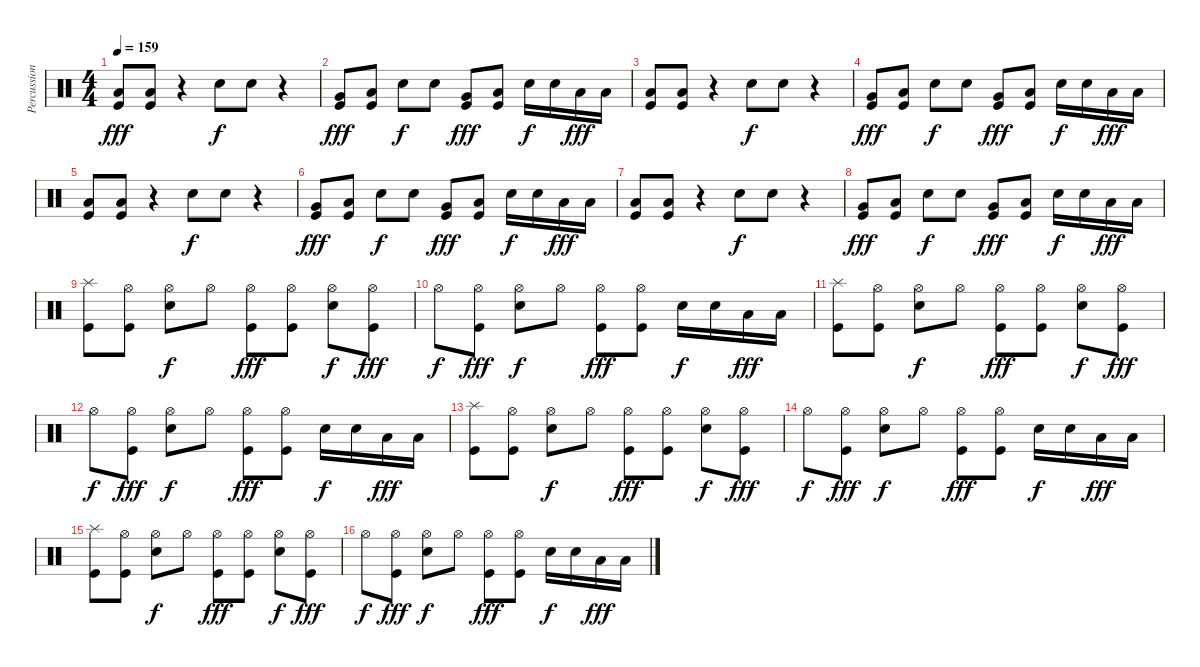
\track ("Percussion" "Percussion") {instrument percussion}
\staff {score}
\articulation defaults
\ts (4 4)
\tempo 159
\clef neutral
\ks c
("Low Tom (hit)" "Kick (hit)").8{dy fff} ("Low Tom (hit)" "Kick (hit)").8 r.4 "Snare (hit) 2".8{dy f} "Snare (hit) 2".8 r.4 |
("Very Low Tom (hit)" "Kick (hit)").8{dy fff} ("Low Tom (hit)" "Kick (hit)").8 "Snare (hit) 2".8{dy f} "Snare (hit) 2".8 ("Very Low Tom (hit)" "Kick (hit)").8{dy fff} ("Low Tom (hit)" "Kick (hit)").8 "Snare (hit) 2".16{dy f} "Snare (hit) 2".16 "Low Tom (hit)".16{dy fff} "Low Tom (hit)".16 |
("Low Tom (hit)" "Kick (hit)").8 ("Low Tom (hit)" "Kick (hit)").8 r.4 "Snare (hit) 2".8{dy f} "Snare (hit) 2".8 r.4 |
("Very Low Tom (hit)" "Kick (hit)").8{dy fff} ("Low Tom (hit)" "Kick (hit)").8 "Snare (hit) 2".8{dy f} "Snare (hit) 2".8 ("Very Low Tom (hit)" "Kick (hit)").8{dy fff} ("Low Tom (hit)" "Kick (hit)").8 "Snare (hit) 2".16{dy f} "Snare (hit) 2".16 "Low Tom (hit)".16{dy fff} "Low Tom (hit)".16 |
("Low Tom (hit)" "Kick (hit)").8 ("Low Tom (hit)" "Kick (hit)").8 r.4 "Snare (hit) 2".8{dy f} "Snare (hit) 2".8 r.4 |
("Very Low Tom (hit)" "Kick (hit)").8{dy fff} ("Low Tom (hit)" "Kick (hit)").8 "Snare (hit) 2".8{dy f} "Snare (hit) 2".8 ("Very Low Tom (hit)" "Kick (hit)").8{dy fff} ("Low Tom (hit)" "Kick (hit)").8 "Snare (hit) 2".16{dy f} "Snare (hit) 2".16 "Low Tom (hit)".16{dy fff} "Low Tom (hit)".16 |
("Low Tom (hit)" "Kick (hit)").8 ("Low Tom (hit)" "Kick (hit)").8 r.4 "Snare (hit) 2".8{dy f} "Snare (hit) 2".8 r.4 |
("Very Low Tom (hit)" "Kick (hit)").8{dy fff} ("Low Tom (hit)" "Kick (hit)").8 "Snare (hit) 2".8{dy f} "Snare (hit) 2".8 ("Very Low Tom (hit)" "Kick (hit)").8{dy fff} ("Low Tom (hit)" "Kick (hit)").8 "Snare (hit) 2".16{dy f} "Snare (hit) 2".16 "Low Tom (hit)".16{dy fff} "Low Tom (hit)".16 |
("Splash (hit)" "Kick (hit)").8 ("Hi-Hat (open)" "Kick (hit)").8 ("Hi-Hat (open)" "Snare (hit) 2").8{dy f} "Hi-Hat (open)".8 ("Hi-Hat (open)" "Kick (hit)").8{dy fff} ("Hi-Hat (open)" "Kick (hit)").8 ("Hi-Hat (open)" "Snare (hit) 2").8{dy f} ("Hi-Hat (open)" "Kick (hit)").8{dy fff} |
"Hi-Hat (open)".8{dy f} ("Hi-Hat (open)" "Kick (hit)").8{dy fff} ("Hi-Hat (open)" "Snare (hit) 2").8{dy f} "Hi-Hat (open)".8 ("Hi-Hat (open)" "Kick (hit)").8{dy fff} ("Hi-Hat (open)" "Kick (hit)").8 "Snare (hit) 2".16{dy f} "Snare (hit) 2".16 "Low Tom (hit)".16{dy fff} "Low Tom (hit)".16 |
("Splash (hit)" "Kick (hit)").8 ("Hi-Hat (open)" "Kick (hit)").8 ("Hi-Hat (open)" "Snare (hit) 2").8{dy f} "Hi-Hat (open)".8 ("Hi-Hat (open)" "Kick (hit)").8{dy fff} ("Hi-Hat (open)" "Kick (hit)").8 ("Hi-Hat (open)" "Snare (hit) 2").8{dy f} ("Hi-Hat (open)" "Kick (hit)").8{dy fff} |
"Hi-Hat (open)".8{dy f} ("Hi-Hat (open)" "Kick (hit)").8{dy fff} ("Hi-Hat (open)" "Snare (hit) 2").8{dy f} "Hi-Hat (open)".8 ("Hi-Hat (open)" "Kick (hit)").8{dy fff} ("Hi-Hat (open)" "Kick (hit)").8 "Snare (hit) 2".16{dy f} "Snare (hit) 2".16 "Low Tom (hit)".16{dy fff} "Low Tom (hit)".16 |
("Splash (hit)" "Kick (hit)").8 ("Hi-Hat (open)" "Kick (hit)").8 ("Hi-Hat (open)" "Snare (hit) 2").8{dy f} "Hi-Hat (open)".8 ("Hi-Hat (open)" "Kick (hit)").8{dy fff} ("Hi-Hat (open)" "Kick (hit)").8 ("Hi-Hat (open)" "Snare (hit) 2").8{dy f} ("Hi-Hat (open)" "Kick (hit)").8{dy fff} |
"Hi-Hat (open)".8{dy f} ("Hi-Hat (open)" "Kick (hit)").8{dy fff} ("Hi-Hat (open)" "Snare (hit) 2").8{dy f} "Hi-Hat (open)".8 ("Hi-Hat (open)" "Kick (hit)").8{dy fff} ("Hi-Hat (open)" "Kick (hit)").8 "Snare (hit) 2".16{dy f} "Snare (hit) 2".16 "Low Tom (hit)".16{dy fff} "Low Tom (hit)".16 |
("Splash (hit)" "Kick (hit)").8 ("Hi-Hat (open)" "Kick (hit)").8 ("Hi-Hat (open)" "Snare (hit) 2").8{dy f} "Hi-Hat (open)".8 ("Hi-Hat (open)" "Kick (hit)").8{dy fff} ("Hi-Hat (open)" "Kick (hit)").8 ("Hi-Hat (open)" "Snare (hit) 2").8{dy f} ("Hi-Hat (open)" "Kick (hit)").8{dy fff} |
"Hi-Hat (open)".8{dy f} ("Hi-Hat (open)" "Kick (hit)").8{dy fff} ("Hi-Hat (open)" "Snare (hit) 2").8{dy f} "Hi-Hat (open)".8 ("Hi-Hat (open)" "Kick (hit)").8{dy fff} ("Hi-Hat (open)" "Kick (hit)").8 "Snare (hit) 2".16{dy f} "Snare (hit) 2".16 "Low Tom (hit)".16{dy fff} "Low Tom (hit)".16
